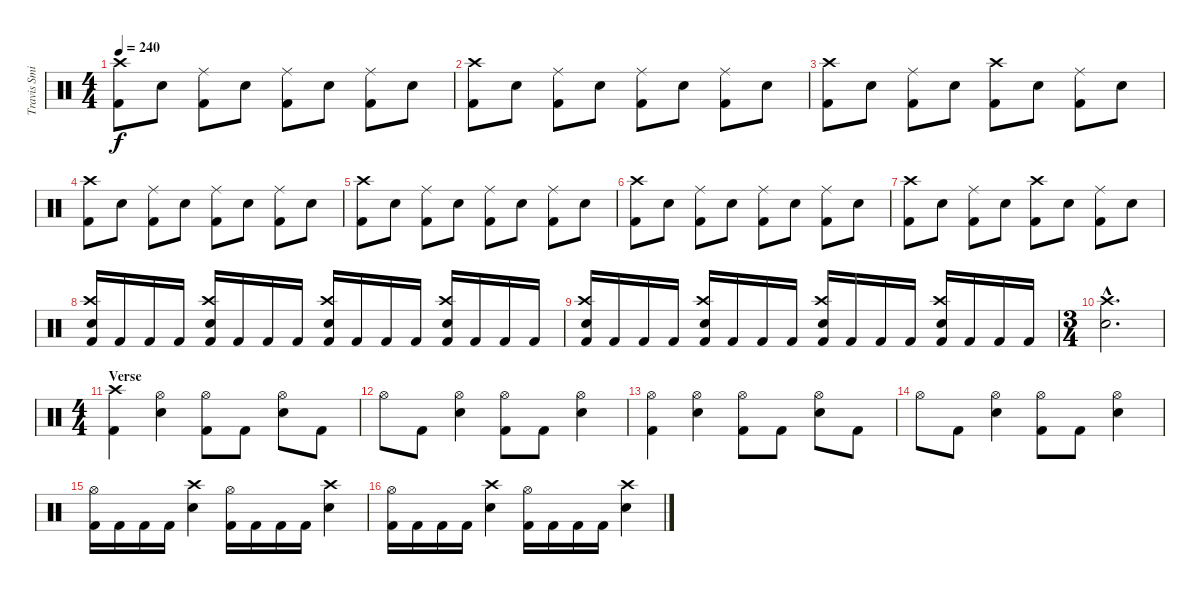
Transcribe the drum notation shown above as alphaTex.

\track ("Travis Smith (Drums)" "Travis Smi") {instrument percussion}
\staff {score}
\articulation defaults
\ts (4 4)
\tempo 240
\clef neutral
\ks c
("Kick (hit) 2" "Crash high (hit)").8{dy f} "Snare (hit) 2".8 ("Kick (hit) 2" "Ride (middle)").8 "Snare (hit) 2".8 ("Kick (hit) 2" "Ride (middle)").8 "Snare (hit) 2".8 ("Kick (hit) 2" "Ride (middle)").8 "Snare (hit) 2".8 |
("Kick (hit) 2" "Crash high (hit)").8 "Snare (hit) 2".8 ("Kick (hit) 2" "Ride (middle)").8 "Snare (hit) 2".8 ("Kick (hit) 2" "Ride (middle)").8 "Snare (hit) 2".8 ("Kick (hit) 2" "Ride (middle)").8 "Snare (hit) 2".8 |
("Kick (hit) 2" "Crash high (hit)").8 "Snare (hit) 2".8 ("Kick (hit) 2" "Ride (middle)").8 "Snare (hit) 2".8 ("Kick (hit) 2" "Crash high (hit)").8 "Snare (hit) 2".8 ("Kick (hit) 2" "Ride (middle)").8 "Snare (hit) 2".8 |
("Kick (hit) 2" "Crash high (hit)").8 "Snare (hit) 2".8 ("Kick (hit) 2" "Ride (middle)").8 "Snare (hit) 2".8 ("Kick (hit) 2" "Ride (middle)").8 "Snare (hit) 2".8 ("Kick (hit) 2" "Ride (middle)").8 "Snare (hit) 2".8 |
("Kick (hit) 2" "Crash high (hit)").8 "Snare (hit) 2".8 ("Kick (hit) 2" "Ride (middle)").8 "Snare (hit) 2".8 ("Kick (hit) 2" "Ride (middle)").8 "Snare (hit) 2".8 ("Kick (hit) 2" "Ride (middle)").8 "Snare (hit) 2".8 |
("Kick (hit) 2" "Crash high (hit)").8 "Snare (hit) 2".8 ("Kick (hit) 2" "Ride (middle)").8 "Snare (hit) 2".8 ("Kick (hit) 2" "Ride (middle)").8 "Snare (hit) 2".8 ("Kick (hit) 2" "Ride (middle)").8 "Snare (hit) 2".8 |
("Kick (hit) 2" "Crash high (hit)").8 "Snare (hit) 2".8 ("Kick (hit) 2" "Ride (middle)").8 "Snare (hit) 2".8 ("Kick (hit) 2" "Crash high (hit)").8 "Snare (hit) 2".8 ("Kick (hit) 2" "Ride (middle)").8 "Snare (hit) 2".8 |
("Kick (hit) 2" "Snare (hit) 2" "Crash high (hit)").16 "Kick (hit) 2".16 "Kick (hit) 2".16 "Kick (hit) 2".16 ("Kick (hit) 2" "Snare (hit) 2" "Crash high (hit)").16 "Kick (hit) 2".16 "Kick (hit) 2".16 "Kick (hit) 2".16 ("Kick (hit) 2" "Snare (hit) 2" "Crash high (hit)").16 "Kick (hit) 2".16 "Kick (hit) 2".16 "Kick (hit) 2".16 ("Kick (hit) 2" "Snare (hit) 2" "Crash high (hit)").16 "Kick (hit) 2".16 "Kick (hit) 2".16 "Kick (hit) 2".16 |
("Kick (hit) 2" "Snare (hit) 2" "Crash high (hit)").16 "Kick (hit) 2".16 "Kick (hit) 2".16 "Kick (hit) 2".16 ("Kick (hit) 2" "Snare (hit) 2" "Crash high (hit)").16 "Kick (hit) 2".16 "Kick (hit) 2".16 "Kick (hit) 2".16 ("Kick (hit) 2" "Snare (hit) 2" "Crash high (hit)").16 "Kick (hit) 2".16 "Kick (hit) 2".16 "Kick (hit) 2".16 ("Kick (hit) 2" "Snare (hit) 2" "Crash high (hit)").16 "Kick (hit) 2".16 "Kick (hit) 2".16 "Kick (hit) 2".16 |
\ts (3 4)
("Snare (hit) 2"{hac} "Crash high (hit)"{hac}).2{d} |
\ts (4 4)
\section ("" "Verse")
("Kick (hit) 2" "Crash high (hit)").4 ("Snare (hit) 2" "Hi-Hat (open)").4 ("Kick (hit) 2" "Hi-Hat (open)").8 "Kick (hit) 2".8 ("Snare (hit) 2" "Hi-Hat (open)").8 "Kick (hit) 2".8 |
"Hi-Hat (open)".8 "Kick (hit) 2".8 ("Snare (hit) 2" "Hi-Hat (open)").4 ("Kick (hit) 2" "Hi-Hat (open)").8 "Kick (hit) 2".8 ("Snare (hit) 2" "Hi-Hat (open)").4 |
("Kick (hit) 2" "Hi-Hat (open)").4 ("Snare (hit) 2" "Hi-Hat (open)").4 ("Kick (hit) 2" "Hi-Hat (open)").8 "Kick (hit) 2".8 ("Snare (hit) 2" "Hi-Hat (open)").8 "Kick (hit) 2".8 |
"Hi-Hat (open)".8 "Kick (hit) 2".8 ("Snare (hit) 2" "Hi-Hat (open)").4 ("Kick (hit) 2" "Hi-Hat (open)").8 "Kick (hit) 2".8 ("Snare (hit) 2" "Hi-Hat (open)").4 |
("Kick (hit) 2" "Hi-Hat (open)").16 "Kick (hit) 2".16 "Kick (hit) 2".16 "Kick (hit) 2".16 ("Snare (hit) 2" "Crash high (hit)").4 ("Kick (hit) 2" "Hi-Hat (open)").16 "Kick (hit) 2".16 "Kick (hit) 2".16 "Kick (hit) 2".16 ("Snare (hit) 2" "Crash high (hit)").4 |
("Kick (hit) 2" "Hi-Hat (open)").16 "Kick (hit) 2".16 "Kick (hit) 2".16 "Kick (hit) 2".16 ("Snare (hit) 2" "Crash high (hit)").4 ("Kick (hit) 2" "Hi-Hat (open)").16 "Kick (hit) 2".16 "Kick (hit) 2".16 "Kick (hit) 2".16 ("Snare (hit) 2" "Crash high (hit)").4
